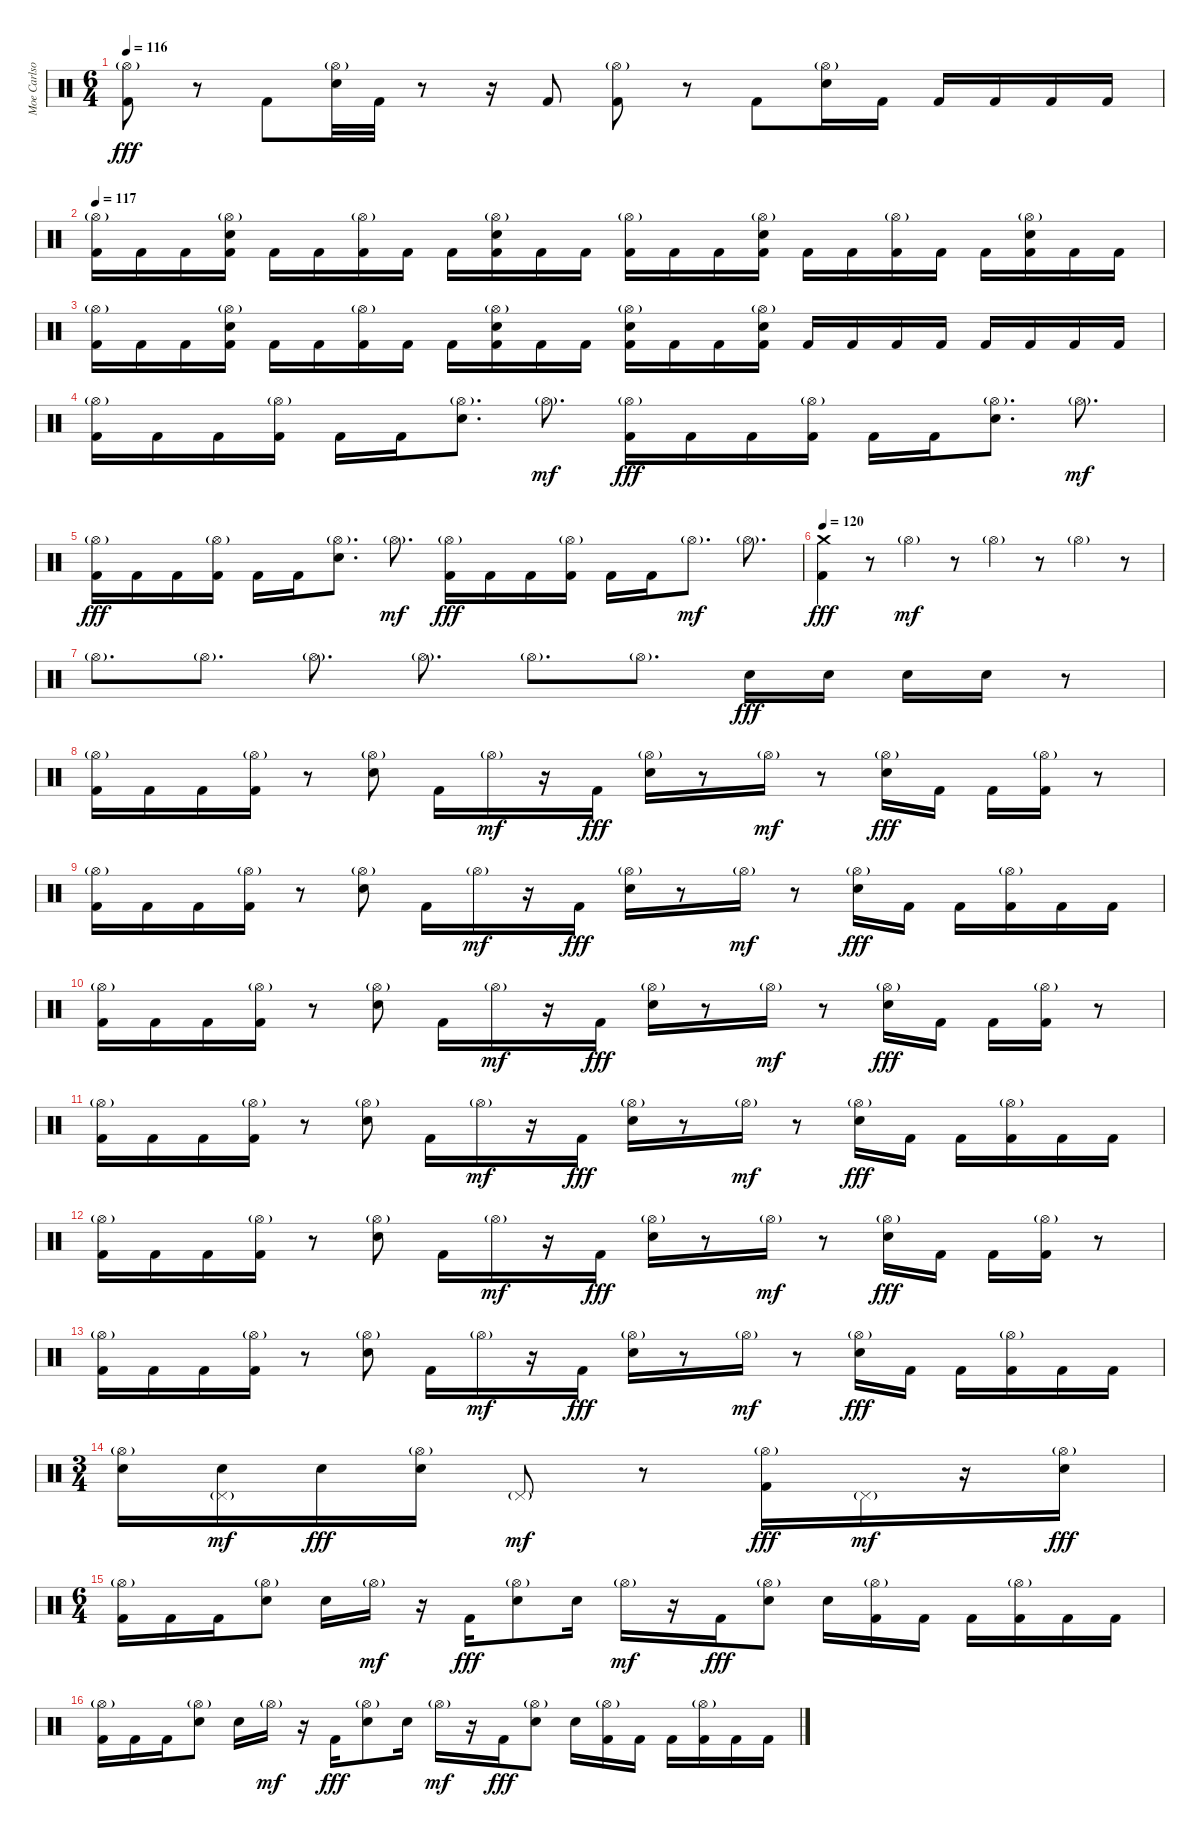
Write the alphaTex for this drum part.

\track ("Moe Carlson" "Moe Carlso") {instrument percussion}
\staff {score}
\articulation defaults
\ts (6 4)
\tempo 116
\clef neutral
\ks c
("Hi-Hat (open)"{g} "Kick (hit) 2").8{dy fff} r.8 "Kick (hit) 2".8 ("Hi-Hat (open)"{g} "Electric Snare (hit)").32 "Kick (hit) 2".32 r.8 r.16 "Kick (hit) 2".8 ("Hi-Hat (open)"{g} "Kick (hit) 2").8 r.8 "Kick (hit) 2".8 ("Hi-Hat (open)"{g} "Electric Snare (hit)").16 "Kick (hit) 2".16 "Kick (hit) 2".16 "Kick (hit) 2".16 "Kick (hit) 2".16 "Kick (hit) 2".16 |
\tempo 117
("Hi-Hat (open)"{g} "Kick (hit) 2").16 "Kick (hit) 2".16 "Kick (hit) 2".16 ("Hi-Hat (open)"{g} "Electric Snare (hit)" "Kick (hit) 2").16 "Kick (hit) 2".16 "Kick (hit) 2".16 ("Hi-Hat (open)"{g} "Kick (hit) 2").16 "Kick (hit) 2".16 "Kick (hit) 2".16 ("Hi-Hat (open)"{g} "Electric Snare (hit)" "Kick (hit) 2").16 "Kick (hit) 2".16 "Kick (hit) 2".16 ("Hi-Hat (open)"{g} "Kick (hit) 2").16 "Kick (hit) 2".16 "Kick (hit) 2".16 ("Hi-Hat (open)"{g} "Electric Snare (hit)" "Kick (hit) 2").16 "Kick (hit) 2".16 "Kick (hit) 2".16 ("Hi-Hat (open)"{g} "Kick (hit) 2").16 "Kick (hit) 2".16 "Kick (hit) 2".16 ("Hi-Hat (open)"{g} "Electric Snare (hit)" "Kick (hit) 2").16 "Kick (hit) 2".16 "Kick (hit) 2".16 |
("Hi-Hat (open)"{g} "Kick (hit) 2").16 "Kick (hit) 2".16 "Kick (hit) 2".16 ("Hi-Hat (open)"{g} "Electric Snare (hit)" "Kick (hit) 2").16 "Kick (hit) 2".16 "Kick (hit) 2".16 ("Hi-Hat (open)"{g} "Kick (hit) 2").16 "Kick (hit) 2".16 "Kick (hit) 2".16 ("Hi-Hat (open)"{g} "Electric Snare (hit)" "Kick (hit) 2").16 "Kick (hit) 2".16 "Kick (hit) 2".16 ("Hi-Hat (open)"{g} "Electric Snare (hit)" "Kick (hit) 2").16 "Kick (hit) 2".16 "Kick (hit) 2".16 ("Hi-Hat (open)"{g} "Electric Snare (hit)" "Kick (hit) 2").16 "Kick (hit) 2".16 "Kick (hit) 2".16 "Kick (hit) 2".16 "Kick (hit) 2".16 "Kick (hit) 2".16 "Kick (hit) 2".16 "Kick (hit) 2".16 "Kick (hit) 2".16 |
("Hi-Hat (open)"{g} "Kick (hit) 2").16 "Kick (hit) 2".16 "Kick (hit) 2".16 ("Hi-Hat (open)"{g} "Kick (hit) 2").16 "Kick (hit) 2".16 "Kick (hit) 2".16 ("Hi-Hat (open)"{g} "Electric Snare (hit)").8{d} "Hi-Hat (open)"{g}.8{d dy mf} ("Hi-Hat (open)"{g} "Kick (hit) 2").16{dy fff} "Kick (hit) 2".16 "Kick (hit) 2".16 ("Hi-Hat (open)"{g} "Kick (hit) 2").16 "Kick (hit) 2".16 "Kick (hit) 2".16 ("Hi-Hat (open)"{g} "Electric Snare (hit)").8{d} "Hi-Hat (open)"{g}.8{d dy mf} |
("Hi-Hat (open)"{g} "Kick (hit) 2").16{dy fff} "Kick (hit) 2".16 "Kick (hit) 2".16 ("Hi-Hat (open)"{g} "Kick (hit) 2").16 "Kick (hit) 2".16 "Kick (hit) 2".16 ("Hi-Hat (open)"{g} "Electric Snare (hit)").8{d} "Hi-Hat (open)"{g}.8{d dy mf} ("Hi-Hat (open)"{g} "Kick (hit) 2").16{dy fff} "Kick (hit) 2".16 "Kick (hit) 2".16 ("Hi-Hat (open)"{g} "Kick (hit) 2").16 "Kick (hit) 2".16 "Kick (hit) 2".16 "Hi-Hat (open)"{g}.8{d dy mf} "Hi-Hat (open)"{g}.8{d} |
\tempo 120
("Crash medium (hit)" "Kick (hit) 2").4{dy fff} r.8 "Hi-Hat (open)"{g}.4{dy mf} r.8 "Hi-Hat (open)"{g}.4 r.8 "Hi-Hat (open)"{g}.4 r.8 |
"Hi-Hat (open)"{g}.8{d} "Hi-Hat (open)"{g}.8{d} "Hi-Hat (open)"{g}.8{d} "Hi-Hat (open)"{g}.8{d} "Hi-Hat (open)"{g}.8{d} "Hi-Hat (open)"{g}.8{d} "Electric Snare (hit)".16{dy fff} "Electric Snare (hit)".16 "Electric Snare (hit)".16 "Electric Snare (hit)".16 r.8 |
("Hi-Hat (open)"{g} "Kick (hit) 2").16 "Kick (hit) 2".16 "Kick (hit) 2".16 ("Hi-Hat (open)"{g} "Kick (hit) 2").16 r.8 ("Hi-Hat (open)"{g} "Electric Snare (hit)").8 "Kick (hit) 2".16 "Hi-Hat (open)"{g}.16{dy mf} r.16 "Kick (hit) 2".16{dy fff} ("Hi-Hat (open)"{g} "Electric Snare (hit)").16 r.8 "Hi-Hat (open)"{g}.16{dy mf} r.8 ("Hi-Hat (open)"{g} "Electric Snare (hit)").16{dy fff} "Kick (hit) 2".16 "Kick (hit) 2".16 ("Hi-Hat (open)"{g} "Kick (hit) 2").16 r.8 |
("Hi-Hat (open)"{g} "Kick (hit) 2").16 "Kick (hit) 2".16 "Kick (hit) 2".16 ("Hi-Hat (open)"{g} "Kick (hit) 2").16 r.8 ("Hi-Hat (open)"{g} "Electric Snare (hit)").8 "Kick (hit) 2".16 "Hi-Hat (open)"{g}.16{dy mf} r.16 "Kick (hit) 2".16{dy fff} ("Hi-Hat (open)"{g} "Electric Snare (hit)").16 r.8 "Hi-Hat (open)"{g}.16{dy mf} r.8 ("Hi-Hat (open)"{g} "Electric Snare (hit)").16{dy fff} "Kick (hit) 2".16 "Kick (hit) 2".16 ("Hi-Hat (open)"{g} "Kick (hit) 2").16 "Kick (hit) 2".16 "Kick (hit) 2".16 |
("Hi-Hat (open)"{g} "Kick (hit) 2").16 "Kick (hit) 2".16 "Kick (hit) 2".16 ("Hi-Hat (open)"{g} "Kick (hit) 2").16 r.8 ("Hi-Hat (open)"{g} "Electric Snare (hit)").8 "Kick (hit) 2".16 "Hi-Hat (open)"{g}.16{dy mf} r.16 "Kick (hit) 2".16{dy fff} ("Hi-Hat (open)"{g} "Electric Snare (hit)").16 r.8 "Hi-Hat (open)"{g}.16{dy mf} r.8 ("Hi-Hat (open)"{g} "Electric Snare (hit)").16{dy fff} "Kick (hit) 2".16 "Kick (hit) 2".16 ("Hi-Hat (open)"{g} "Kick (hit) 2").16 r.8 |
("Hi-Hat (open)"{g} "Kick (hit) 2").16 "Kick (hit) 2".16 "Kick (hit) 2".16 ("Hi-Hat (open)"{g} "Kick (hit) 2").16 r.8 ("Hi-Hat (open)"{g} "Electric Snare (hit)").8 "Kick (hit) 2".16 "Hi-Hat (open)"{g}.16{dy mf} r.16 "Kick (hit) 2".16{dy fff} ("Hi-Hat (open)"{g} "Electric Snare (hit)").16 r.8 "Hi-Hat (open)"{g}.16{dy mf} r.8 ("Hi-Hat (open)"{g} "Electric Snare (hit)").16{dy fff} "Kick (hit) 2".16 "Kick (hit) 2".16 ("Hi-Hat (open)"{g} "Kick (hit) 2").16 "Kick (hit) 2".16 "Kick (hit) 2".16 |
("Hi-Hat (open)"{g} "Kick (hit) 2").16 "Kick (hit) 2".16 "Kick (hit) 2".16 ("Hi-Hat (open)"{g} "Kick (hit) 2").16 r.8 ("Hi-Hat (open)"{g} "Electric Snare (hit)").8 "Kick (hit) 2".16 "Hi-Hat (open)"{g}.16{dy mf} r.16 "Kick (hit) 2".16{dy fff} ("Hi-Hat (open)"{g} "Electric Snare (hit)").16 r.8 "Hi-Hat (open)"{g}.16{dy mf} r.8 ("Hi-Hat (open)"{g} "Electric Snare (hit)").16{dy fff} "Kick (hit) 2".16 "Kick (hit) 2".16 ("Hi-Hat (open)"{g} "Kick (hit) 2").16 r.8 |
("Hi-Hat (open)"{g} "Kick (hit) 2").16 "Kick (hit) 2".16 "Kick (hit) 2".16 ("Hi-Hat (open)"{g} "Kick (hit) 2").16 r.8 ("Hi-Hat (open)"{g} "Electric Snare (hit)").8 "Kick (hit) 2".16 "Hi-Hat (open)"{g}.16{dy mf} r.16 "Kick (hit) 2".16{dy fff} ("Hi-Hat (open)"{g} "Electric Snare (hit)").16 r.8 "Hi-Hat (open)"{g}.16{dy mf} r.8 ("Hi-Hat (open)"{g} "Electric Snare (hit)").16{dy fff} "Kick (hit) 2".16 "Kick (hit) 2".16 ("Hi-Hat (open)"{g} "Kick (hit) 2").16 "Kick (hit) 2".16 "Kick (hit) 2".16 |
\ts (3 4)
("Hi-Hat (open)"{g} "Electric Snare (hit)").16 ("Electric Snare (hit)" "Pedal Hi-Hat (hit)"{g}).16{dy mf} "Electric Snare (hit)".16{dy fff} ("Hi-Hat (open)"{g} "Electric Snare (hit)").16 "Pedal Hi-Hat (hit)"{g}.8{dy mf} r.8 ("Hi-Hat (open)"{g} "Kick (hit) 2").16{dy fff} "Pedal Hi-Hat (hit)"{g}.16{dy mf} r.16 ("Hi-Hat (open)"{g} "Electric Snare (hit)").16{dy fff} |
\ts (6 4)
("Hi-Hat (open)"{g} "Kick (hit) 2").16 "Kick (hit) 2".16 "Kick (hit) 2".16 ("Hi-Hat (open)"{g} "Electric Snare (hit)").8 "Electric Snare (hit)".16 "Hi-Hat (open)"{g}.16{dy mf} r.16 "Kick (hit) 2".16{dy fff} ("Hi-Hat (open)"{g} "Electric Snare (hit)").8 "Electric Snare (hit)".16 "Hi-Hat (open)"{g}.16{dy mf} r.16 "Kick (hit) 2".16{dy fff} ("Hi-Hat (open)"{g} "Electric Snare (hit)").8 "Electric Snare (hit)".16 ("Hi-Hat (open)"{g} "Kick (hit) 2").16 "Kick (hit) 2".16 "Kick (hit) 2".16 ("Hi-Hat (open)"{g} "Kick (hit) 2").16 "Kick (hit) 2".16 "Kick (hit) 2".16 |
("Hi-Hat (open)"{g} "Kick (hit) 2").16 "Kick (hit) 2".16 "Kick (hit) 2".16 ("Hi-Hat (open)"{g} "Electric Snare (hit)").8 "Electric Snare (hit)".16 "Hi-Hat (open)"{g}.16{dy mf} r.16 "Kick (hit) 2".16{dy fff} ("Hi-Hat (open)"{g} "Electric Snare (hit)").8 "Electric Snare (hit)".16 "Hi-Hat (open)"{g}.16{dy mf} r.16 "Kick (hit) 2".16{dy fff} ("Hi-Hat (open)"{g} "Electric Snare (hit)").8 "Electric Snare (hit)".16 ("Hi-Hat (open)"{g} "Kick (hit) 2").16 "Kick (hit) 2".16 "Kick (hit) 2".16 ("Hi-Hat (open)"{g} "Kick (hit) 2").16 "Kick (hit) 2".16 "Kick (hit) 2".16
